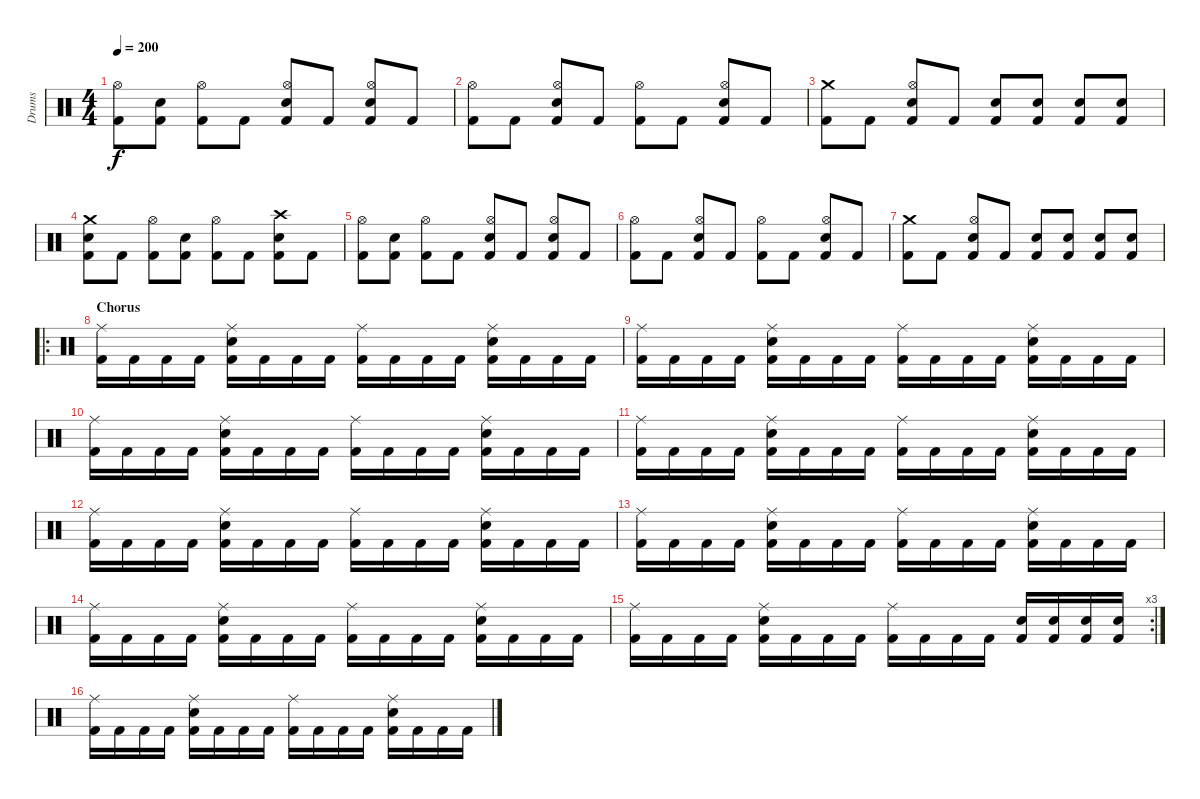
\track ("Drums" "Drums") {instrument percussion}
\staff {score}
\articulation defaults
\ts (4 4)
\tempo 200
\clef neutral
\ks c
("Kick (hit) 2" "Hi-Hat (open)").8{dy f} ("Kick (hit) 2" "Snare (hit) 2").8 ("Kick (hit) 2" "Hi-Hat (open)").8 "Kick (hit) 2".8 ("Kick (hit) 2" "Snare (hit) 2" "Hi-Hat (open)").8 "Kick (hit) 2".8 ("Kick (hit) 2" "Snare (hit) 2" "Hi-Hat (open)").8 "Kick (hit) 2".8 |
("Kick (hit) 2" "Hi-Hat (open)").8 "Kick (hit) 2".8 ("Kick (hit) 2" "Snare (hit) 2" "Hi-Hat (open)").8 "Kick (hit) 2".8 ("Kick (hit) 2" "Hi-Hat (open)").8 "Kick (hit) 2".8 ("Kick (hit) 2" "Snare (hit) 2" "Hi-Hat (open)").8 "Kick (hit) 2".8 |
("Kick (hit) 2" "Crash medium (hit)").8 "Kick (hit) 2".8 ("Kick (hit) 2" "Snare (hit) 2" "Hi-Hat (open)").8 "Kick (hit) 2".8 ("Kick (hit) 2" "Snare (hit) 2").8 ("Kick (hit) 2" "Snare (hit) 2").8 ("Kick (hit) 2" "Snare (hit) 2").8 ("Kick (hit) 2" "Snare (hit) 2").8 |
("Kick (hit) 2" "Snare (hit) 2" "Crash medium (hit)").8 "Kick (hit) 2".8 ("Kick (hit) 2" "Hi-Hat (open)").8 ("Kick (hit) 2" "Snare (hit) 2").8 ("Kick (hit) 2" "Hi-Hat (open)").8 "Kick (hit) 2".8 ("Kick (hit) 2" "Snare (hit) 2" "Crash high (hit)").8 "Kick (hit) 2".8 |
("Kick (hit) 2" "Hi-Hat (open)").8 ("Kick (hit) 2" "Snare (hit) 2").8 ("Kick (hit) 2" "Hi-Hat (open)").8 "Kick (hit) 2".8 ("Kick (hit) 2" "Snare (hit) 2" "Hi-Hat (open)").8 "Kick (hit) 2".8 ("Kick (hit) 2" "Snare (hit) 2" "Hi-Hat (open)").8 "Kick (hit) 2".8 |
("Kick (hit) 2" "Hi-Hat (open)").8 "Kick (hit) 2".8 ("Kick (hit) 2" "Snare (hit) 2" "Hi-Hat (open)").8 "Kick (hit) 2".8 ("Kick (hit) 2" "Hi-Hat (open)").8 "Kick (hit) 2".8 ("Kick (hit) 2" "Snare (hit) 2" "Hi-Hat (open)").8 "Kick (hit) 2".8 |
("Kick (hit) 2" "Crash medium (hit)").8 "Kick (hit) 2".8 ("Kick (hit) 2" "Snare (hit) 2" "Hi-Hat (open)").8 "Kick (hit) 2".8 ("Kick (hit) 2" "Snare (hit) 2").8 ("Kick (hit) 2" "Snare (hit) 2").8 ("Kick (hit) 2" "Snare (hit) 2").8 ("Kick (hit) 2" "Snare (hit) 2").8 |
\ro
\section ("" "Chorus")
("Kick (hit) 2" "Ride (middle)").16 "Kick (hit) 2".16 "Kick (hit) 2".16 "Kick (hit) 2".16 ("Kick (hit) 2" "Snare (hit) 2" "Ride (middle)").16 "Kick (hit) 2".16 "Kick (hit) 2".16 "Kick (hit) 2".16 ("Kick (hit) 2" "Ride (middle)").16 "Kick (hit) 2".16 "Kick (hit) 2".16 "Kick (hit) 2".16 ("Kick (hit) 2" "Snare (hit) 2" "Ride (middle)").16 "Kick (hit) 2".16 "Kick (hit) 2".16 "Kick (hit) 2".16 |
("Kick (hit) 2" "Ride (middle)").16 "Kick (hit) 2".16 "Kick (hit) 2".16 "Kick (hit) 2".16 ("Kick (hit) 2" "Snare (hit) 2" "Ride (middle)").16 "Kick (hit) 2".16 "Kick (hit) 2".16 "Kick (hit) 2".16 ("Kick (hit) 2" "Ride (middle)").16 "Kick (hit) 2".16 "Kick (hit) 2".16 "Kick (hit) 2".16 ("Kick (hit) 2" "Snare (hit) 2" "Ride (middle)").16 "Kick (hit) 2".16 "Kick (hit) 2".16 "Kick (hit) 2".16 |
("Kick (hit) 2" "Ride (middle)").16 "Kick (hit) 2".16 "Kick (hit) 2".16 "Kick (hit) 2".16 ("Kick (hit) 2" "Snare (hit) 2" "Ride (middle)").16 "Kick (hit) 2".16 "Kick (hit) 2".16 "Kick (hit) 2".16 ("Kick (hit) 2" "Ride (middle)").16 "Kick (hit) 2".16 "Kick (hit) 2".16 "Kick (hit) 2".16 ("Kick (hit) 2" "Snare (hit) 2" "Ride (middle)").16 "Kick (hit) 2".16 "Kick (hit) 2".16 "Kick (hit) 2".16 |
("Kick (hit) 2" "Ride (middle)").16 "Kick (hit) 2".16 "Kick (hit) 2".16 "Kick (hit) 2".16 ("Kick (hit) 2" "Snare (hit) 2" "Ride (middle)").16 "Kick (hit) 2".16 "Kick (hit) 2".16 "Kick (hit) 2".16 ("Kick (hit) 2" "Ride (middle)").16 "Kick (hit) 2".16 "Kick (hit) 2".16 "Kick (hit) 2".16 ("Kick (hit) 2" "Snare (hit) 2" "Ride (middle)").16 "Kick (hit) 2".16 "Kick (hit) 2".16 "Kick (hit) 2".16 |
("Kick (hit) 2" "Ride (middle)").16 "Kick (hit) 2".16 "Kick (hit) 2".16 "Kick (hit) 2".16 ("Kick (hit) 2" "Snare (hit) 2" "Ride (middle)").16 "Kick (hit) 2".16 "Kick (hit) 2".16 "Kick (hit) 2".16 ("Kick (hit) 2" "Ride (middle)").16 "Kick (hit) 2".16 "Kick (hit) 2".16 "Kick (hit) 2".16 ("Kick (hit) 2" "Snare (hit) 2" "Ride (middle)").16 "Kick (hit) 2".16 "Kick (hit) 2".16 "Kick (hit) 2".16 |
("Kick (hit) 2" "Ride (middle)").16 "Kick (hit) 2".16 "Kick (hit) 2".16 "Kick (hit) 2".16 ("Kick (hit) 2" "Snare (hit) 2" "Ride (middle)").16 "Kick (hit) 2".16 "Kick (hit) 2".16 "Kick (hit) 2".16 ("Kick (hit) 2" "Ride (middle)").16 "Kick (hit) 2".16 "Kick (hit) 2".16 "Kick (hit) 2".16 ("Kick (hit) 2" "Snare (hit) 2" "Ride (middle)").16 "Kick (hit) 2".16 "Kick (hit) 2".16 "Kick (hit) 2".16 |
("Kick (hit) 2" "Ride (middle)").16 "Kick (hit) 2".16 "Kick (hit) 2".16 "Kick (hit) 2".16 ("Kick (hit) 2" "Snare (hit) 2" "Ride (middle)").16 "Kick (hit) 2".16 "Kick (hit) 2".16 "Kick (hit) 2".16 ("Kick (hit) 2" "Ride (middle)").16 "Kick (hit) 2".16 "Kick (hit) 2".16 "Kick (hit) 2".16 ("Kick (hit) 2" "Snare (hit) 2" "Ride (middle)").16 "Kick (hit) 2".16 "Kick (hit) 2".16 "Kick (hit) 2".16 |
\rc 3
("Kick (hit) 2" "Ride (middle)").16 "Kick (hit) 2".16 "Kick (hit) 2".16 "Kick (hit) 2".16 ("Kick (hit) 2" "Snare (hit) 2" "Ride (middle)").16 "Kick (hit) 2".16 "Kick (hit) 2".16 "Kick (hit) 2".16 ("Kick (hit) 2" "Ride (middle)").16 "Kick (hit) 2".16 "Kick (hit) 2".16 "Kick (hit) 2".16 ("Kick (hit) 2" "Snare (hit) 2").16 ("Kick (hit) 2" "Snare (hit) 2").16 ("Kick (hit) 2" "Snare (hit) 2").16 ("Kick (hit) 2" "Snare (hit) 2").16 |
("Kick (hit) 2" "Ride (middle)").16 "Kick (hit) 2".16 "Kick (hit) 2".16 "Kick (hit) 2".16 ("Kick (hit) 2" "Snare (hit) 2" "Ride (middle)").16 "Kick (hit) 2".16 "Kick (hit) 2".16 "Kick (hit) 2".16 ("Kick (hit) 2" "Ride (middle)").16 "Kick (hit) 2".16 "Kick (hit) 2".16 "Kick (hit) 2".16 ("Kick (hit) 2" "Snare (hit) 2" "Ride (middle)").16 "Kick (hit) 2".16 "Kick (hit) 2".16 "Kick (hit) 2".16
